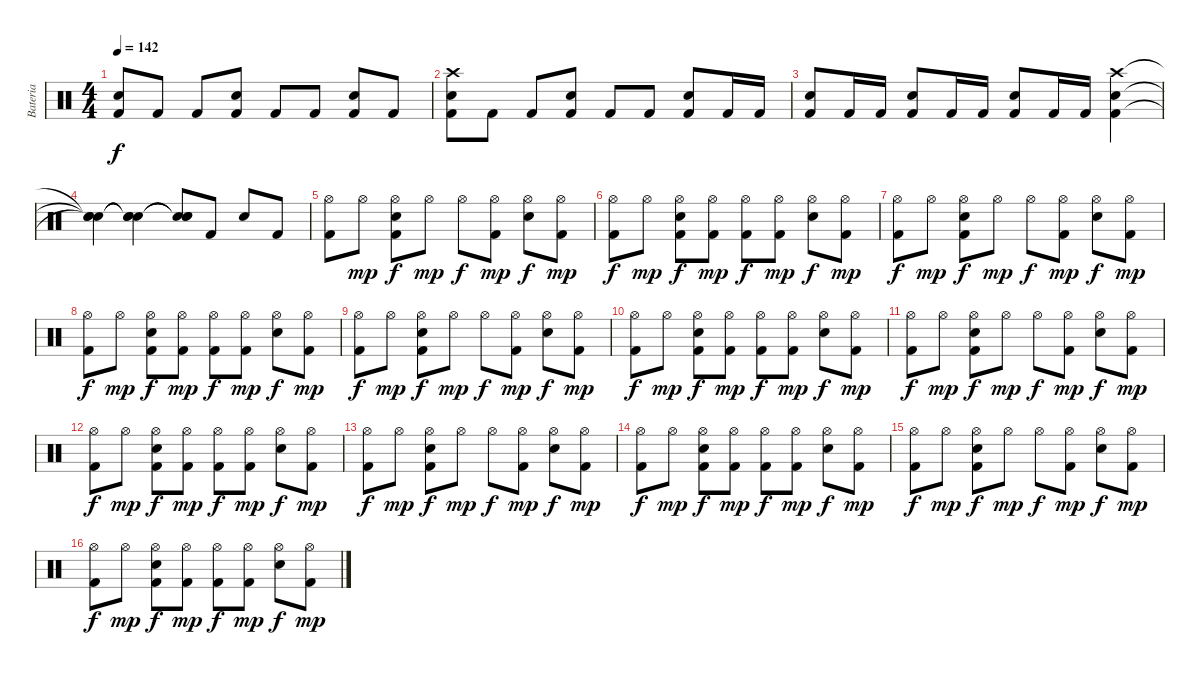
\track ("Bateria" "Bateria") {instrument percussion}
\staff {score}
\articulation defaults
\ts (4 4)
\tempo 142
\clef neutral
\ks c
("Electric Snare (hit)" "Kick (hit) 2").8{dy f} "Kick (hit) 2".8 "Kick (hit) 2".8 ("Electric Snare (hit)" "Kick (hit) 2").8 "Kick (hit) 2".8 "Kick (hit) 2".8 ("Electric Snare (hit)" "Kick (hit) 2").8 "Kick (hit) 2".8 |
("Electric Snare (hit)" "Kick (hit) 2" "Crash high (hit)").8 "Kick (hit) 2".8 "Kick (hit) 2".8 ("Electric Snare (hit)" "Kick (hit) 2").8 "Kick (hit) 2".8 "Kick (hit) 2".8 ("Electric Snare (hit)" "Kick (hit) 2").8 "Kick (hit) 2".16 "Kick (hit) 2".16 |
("Electric Snare (hit)" "Kick (hit) 2").8 "Kick (hit) 2".16 "Kick (hit) 2".16 ("Electric Snare (hit)" "Kick (hit) 2").8 "Kick (hit) 2".16 "Kick (hit) 2".16 ("Electric Snare (hit)" "Kick (hit) 2").8 "Kick (hit) 2".16 "Kick (hit) 2".16 ("Electric Snare (hit)" "Kick (hit) 2" "Crash high (hit)").4 |
("Snare (hit)"{t} "Snare (hit)"{t} "Snare (hit)"{t}).4 ("Snare (hit)"{t} "Snare (hit)"{t} "Snare (hit)"{t}).4 ("Snare (hit)"{t} "Snare (hit)"{t} "Snare (hit)"{t}).8 "Kick (hit) 2".8 "Electric Snare (hit)".8 "Kick (hit) 2".8 |
("Kick (hit) 2" "Hi-Hat (open)").8 "Hi-Hat (open)".8{dy mp} ("Electric Snare (hit)" "Kick (hit) 2" "Hi-Hat (open)").8{dy f} "Hi-Hat (open)".8{dy mp} "Hi-Hat (open)".8{dy f} ("Kick (hit) 2" "Hi-Hat (open)").8{dy mp} ("Electric Snare (hit)" "Hi-Hat (open)").8{dy f} ("Kick (hit) 2" "Hi-Hat (open)").8{dy mp} |
("Kick (hit) 2" "Hi-Hat (open)").8{dy f} "Hi-Hat (open)".8{dy mp} ("Electric Snare (hit)" "Kick (hit) 2" "Hi-Hat (open)").8{dy f} ("Kick (hit) 2" "Hi-Hat (open)").8{dy mp} ("Kick (hit) 2"{x} "Hi-Hat (open)").8{dy f} ("Kick (hit) 2" "Hi-Hat (open)").8{dy mp} ("Electric Snare (hit)" "Hi-Hat (open)").8{dy f} ("Kick (hit) 2" "Hi-Hat (open)").8{dy mp} |
("Kick (hit) 2" "Hi-Hat (open)").8{dy f} "Hi-Hat (open)".8{dy mp} ("Electric Snare (hit)" "Kick (hit) 2" "Hi-Hat (open)").8{dy f} "Hi-Hat (open)".8{dy mp} "Hi-Hat (open)".8{dy f} ("Kick (hit) 2" "Hi-Hat (open)").8{dy mp} ("Electric Snare (hit)" "Hi-Hat (open)").8{dy f} ("Kick (hit) 2" "Hi-Hat (open)").8{dy mp} |
("Kick (hit) 2" "Hi-Hat (open)").8{dy f} "Hi-Hat (open)".8{dy mp} ("Electric Snare (hit)" "Kick (hit) 2" "Hi-Hat (open)").8{dy f} ("Kick (hit) 2" "Hi-Hat (open)").8{dy mp} ("Kick (hit) 2"{x} "Hi-Hat (open)").8{dy f} ("Kick (hit) 2" "Hi-Hat (open)").8{dy mp} ("Electric Snare (hit)" "Hi-Hat (open)").8{dy f} ("Kick (hit) 2" "Hi-Hat (open)").8{dy mp} |
("Kick (hit) 2" "Hi-Hat (open)").8{dy f} "Hi-Hat (open)".8{dy mp} ("Electric Snare (hit)" "Kick (hit) 2" "Hi-Hat (open)").8{dy f} "Hi-Hat (open)".8{dy mp} "Hi-Hat (open)".8{dy f} ("Kick (hit) 2" "Hi-Hat (open)").8{dy mp} ("Electric Snare (hit)" "Hi-Hat (open)").8{dy f} ("Kick (hit) 2" "Hi-Hat (open)").8{dy mp} |
("Kick (hit) 2" "Hi-Hat (open)").8{dy f} "Hi-Hat (open)".8{dy mp} ("Electric Snare (hit)" "Kick (hit) 2" "Hi-Hat (open)").8{dy f} ("Kick (hit) 2" "Hi-Hat (open)").8{dy mp} ("Kick (hit) 2"{x} "Hi-Hat (open)").8{dy f} ("Kick (hit) 2" "Hi-Hat (open)").8{dy mp} ("Electric Snare (hit)" "Hi-Hat (open)").8{dy f} ("Kick (hit) 2" "Hi-Hat (open)").8{dy mp} |
("Kick (hit) 2" "Hi-Hat (open)").8{dy f} "Hi-Hat (open)".8{dy mp} ("Electric Snare (hit)" "Kick (hit) 2" "Hi-Hat (open)").8{dy f} "Hi-Hat (open)".8{dy mp} "Hi-Hat (open)".8{dy f} ("Kick (hit) 2" "Hi-Hat (open)").8{dy mp} ("Electric Snare (hit)" "Hi-Hat (open)").8{dy f} ("Kick (hit) 2" "Hi-Hat (open)").8{dy mp} |
("Kick (hit) 2" "Hi-Hat (open)").8{dy f} "Hi-Hat (open)".8{dy mp} ("Electric Snare (hit)" "Kick (hit) 2" "Hi-Hat (open)").8{dy f} ("Kick (hit) 2" "Hi-Hat (open)").8{dy mp} ("Kick (hit) 2"{x} "Hi-Hat (open)").8{dy f} ("Kick (hit) 2" "Hi-Hat (open)").8{dy mp} ("Electric Snare (hit)" "Hi-Hat (open)").8{dy f} ("Kick (hit) 2" "Hi-Hat (open)").8{dy mp} |
("Kick (hit) 2" "Hi-Hat (open)").8{dy f} "Hi-Hat (open)".8{dy mp} ("Electric Snare (hit)" "Kick (hit) 2" "Hi-Hat (open)").8{dy f} "Hi-Hat (open)".8{dy mp} "Hi-Hat (open)".8{dy f} ("Kick (hit) 2" "Hi-Hat (open)").8{dy mp} ("Electric Snare (hit)" "Hi-Hat (open)").8{dy f} ("Kick (hit) 2" "Hi-Hat (open)").8{dy mp} |
("Kick (hit) 2" "Hi-Hat (open)").8{dy f} "Hi-Hat (open)".8{dy mp} ("Electric Snare (hit)" "Kick (hit) 2" "Hi-Hat (open)").8{dy f} ("Kick (hit) 2" "Hi-Hat (open)").8{dy mp} ("Kick (hit) 2"{x} "Hi-Hat (open)").8{dy f} ("Kick (hit) 2" "Hi-Hat (open)").8{dy mp} ("Electric Snare (hit)" "Hi-Hat (open)").8{dy f} ("Kick (hit) 2" "Hi-Hat (open)").8{dy mp} |
("Kick (hit) 2" "Hi-Hat (open)").8{dy f} "Hi-Hat (open)".8{dy mp} ("Electric Snare (hit)" "Kick (hit) 2" "Hi-Hat (open)").8{dy f} "Hi-Hat (open)".8{dy mp} "Hi-Hat (open)".8{dy f} ("Kick (hit) 2" "Hi-Hat (open)").8{dy mp} ("Electric Snare (hit)" "Hi-Hat (open)").8{dy f} ("Kick (hit) 2" "Hi-Hat (open)").8{dy mp} |
("Kick (hit) 2" "Hi-Hat (open)").8{dy f} "Hi-Hat (open)".8{dy mp} ("Electric Snare (hit)" "Kick (hit) 2" "Hi-Hat (open)").8{dy f} ("Kick (hit) 2" "Hi-Hat (open)").8{dy mp} ("Kick (hit) 2"{x} "Hi-Hat (open)").8{dy f} ("Kick (hit) 2" "Hi-Hat (open)").8{dy mp} ("Electric Snare (hit)" "Hi-Hat (open)").8{dy f} ("Kick (hit) 2" "Hi-Hat (open)").8{dy mp}
